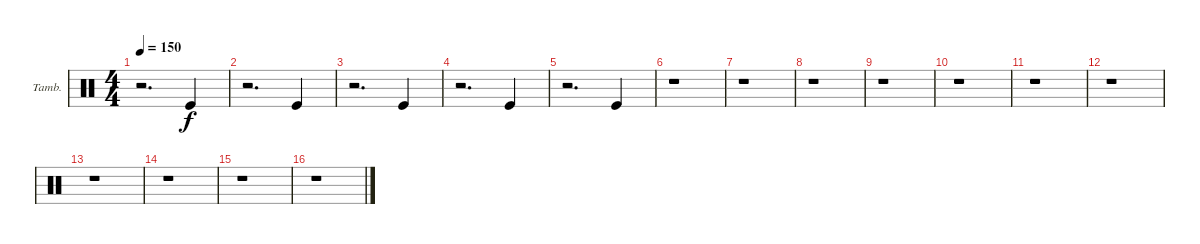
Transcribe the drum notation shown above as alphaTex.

\defaultSystemsLayout 4
\bracketExtendMode groupsimilarinstruments
\firstSystemTrackNameOrientation horizontal
\otherSystemsTrackNameOrientation horizontal
\track ("Tambourine" "Tamb.") {instrument percussion}
\staff {score}
\articulation defaults
\ts (4 4)
\tempo 150
\clef neutral
\ks c
r.2{d dy f} "Kick (hit)".4 |
r.2{d} "Kick (hit)".4 |
r.2{d} "Kick (hit)".4 |
r.2{d} "Kick (hit)".4 |
r.2{d} "Kick (hit)".4 |
r.1 |
r.1 |
r.1 |
r.1 |
r.1 |
r.1 |
r.1 |
r.1 |
r.1 |
r.1 |
r.1
